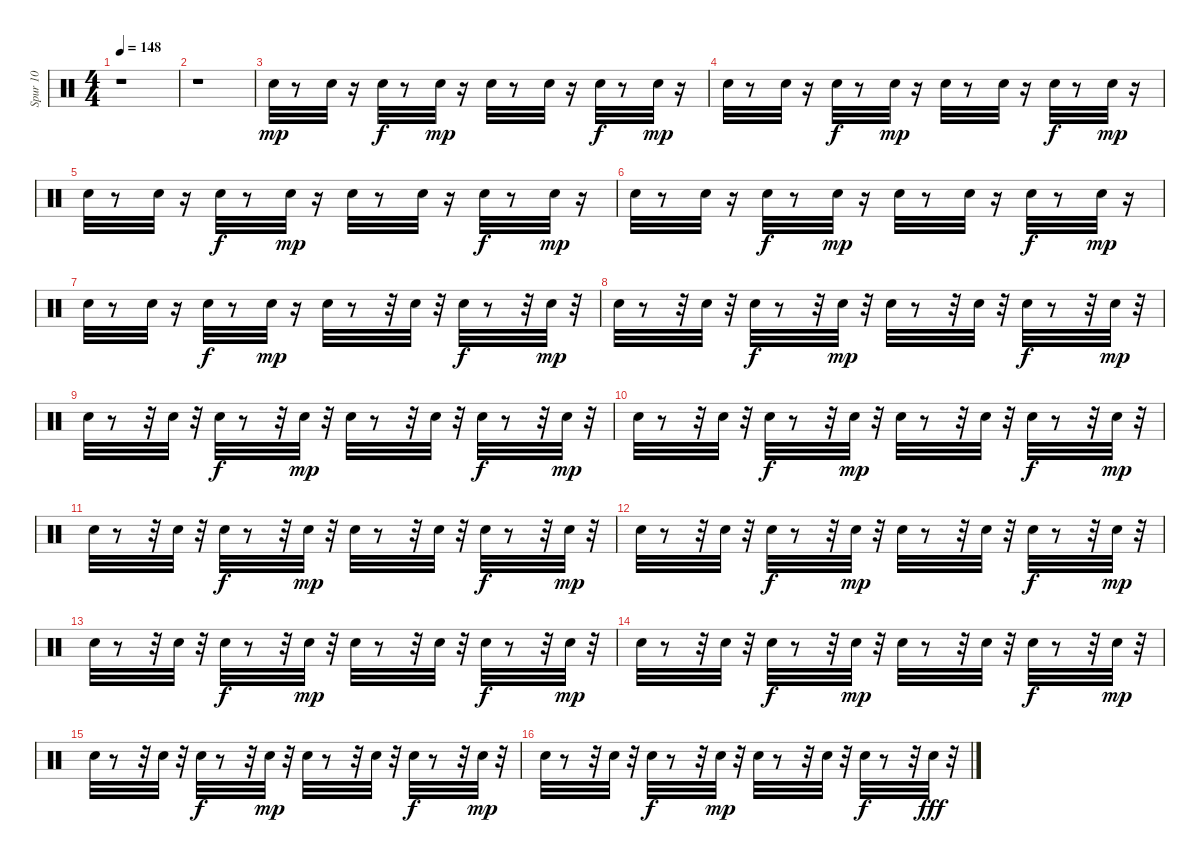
\track ("Spur 10" "Spur 10") {instrument percussion}
\staff {score}
\articulation defaults
\ts (4 4)
\tempo 148
\clef neutral
\ks c
r.1{dy mp} |
r.1 |
"Snare (hit) 2".32 r.8 "Snare (hit) 2".32 r.16 "Snare (hit) 2".32{dy f} r.8 "Snare (hit) 2".32{dy mp} r.16 "Snare (hit) 2".32 r.8 "Snare (hit) 2".32 r.16 "Snare (hit) 2".32{dy f} r.8 "Snare (hit) 2".32{dy mp} r.16 |
"Snare (hit) 2".32 r.8 "Snare (hit) 2".32 r.16 "Snare (hit) 2".32{dy f} r.8 "Snare (hit) 2".32{dy mp} r.16 "Snare (hit) 2".32 r.8 "Snare (hit) 2".32 r.16 "Snare (hit) 2".32{dy f} r.8 "Snare (hit) 2".32{dy mp} r.16 |
"Snare (hit) 2".32 r.8 "Snare (hit) 2".32 r.16 "Snare (hit) 2".32{dy f} r.8 "Snare (hit) 2".32{dy mp} r.16 "Snare (hit) 2".32 r.8 "Snare (hit) 2".32 r.16 "Snare (hit) 2".32{dy f} r.8 "Snare (hit) 2".32{dy mp} r.16 |
"Snare (hit) 2".32 r.8 "Snare (hit) 2".32 r.16 "Snare (hit) 2".32{dy f} r.8 "Snare (hit) 2".32{dy mp} r.16 "Snare (hit) 2".32 r.8 "Snare (hit) 2".32 r.16 "Snare (hit) 2".32{dy f} r.8 "Snare (hit) 2".32{dy mp} r.16 |
"Snare (hit) 2".32 r.8 "Snare (hit) 2".32 r.16 "Snare (hit) 2".32{dy f} r.8 "Snare (hit) 2".32{dy mp} r.16 "Snare (hit) 2".32 r.8 r.32 "Snare (hit) 2".32 r.32 "Snare (hit) 2".32{dy f} r.8 r.32 "Snare (hit) 2".32{dy mp} r.32 |
"Snare (hit) 2".32 r.8 r.32 "Snare (hit) 2".32 r.32 "Snare (hit) 2".32{dy f} r.8 r.32 "Snare (hit) 2".32{dy mp} r.32 "Snare (hit) 2".32 r.8 r.32 "Snare (hit) 2".32 r.32 "Snare (hit) 2".32{dy f} r.8 r.32 "Snare (hit) 2".32{dy mp} r.32 |
"Snare (hit) 2".32 r.8 r.32 "Snare (hit) 2".32 r.32 "Snare (hit) 2".32{dy f} r.8 r.32 "Snare (hit) 2".32{dy mp} r.32 "Snare (hit) 2".32 r.8 r.32 "Snare (hit) 2".32 r.32 "Snare (hit) 2".32{dy f} r.8 r.32 "Snare (hit) 2".32{dy mp} r.32 |
"Snare (hit) 2".32 r.8 r.32 "Snare (hit) 2".32 r.32 "Snare (hit) 2".32{dy f} r.8 r.32 "Snare (hit) 2".32{dy mp} r.32 "Snare (hit) 2".32 r.8 r.32 "Snare (hit) 2".32 r.32 "Snare (hit) 2".32{dy f} r.8 r.32 "Snare (hit) 2".32{dy mp} r.32 |
"Snare (hit) 2".32 r.8 r.32 "Snare (hit) 2".32 r.32 "Snare (hit) 2".32{dy f} r.8 r.32 "Snare (hit) 2".32{dy mp} r.32 "Snare (hit) 2".32 r.8 r.32 "Snare (hit) 2".32 r.32 "Snare (hit) 2".32{dy f} r.8 r.32 "Snare (hit) 2".32{dy mp} r.32 |
"Snare (hit) 2".32 r.8 r.32 "Snare (hit) 2".32 r.32 "Snare (hit) 2".32{dy f} r.8 r.32 "Snare (hit) 2".32{dy mp} r.32 "Snare (hit) 2".32 r.8 r.32 "Snare (hit) 2".32 r.32 "Snare (hit) 2".32{dy f} r.8 r.32 "Snare (hit) 2".32{dy mp} r.32 |
"Snare (hit) 2".32 r.8 r.32 "Snare (hit) 2".32 r.32 "Snare (hit) 2".32{dy f} r.8 r.32 "Snare (hit) 2".32{dy mp} r.32 "Snare (hit) 2".32 r.8 r.32 "Snare (hit) 2".32 r.32 "Snare (hit) 2".32{dy f} r.8 r.32 "Snare (hit) 2".32{dy mp} r.32 |
"Snare (hit) 2".32 r.8 r.32 "Snare (hit) 2".32 r.32 "Snare (hit) 2".32{dy f} r.8 r.32 "Snare (hit) 2".32{dy mp} r.32 "Snare (hit) 2".32 r.8 r.32 "Snare (hit) 2".32 r.32 "Snare (hit) 2".32{dy f} r.8 r.32 "Snare (hit) 2".32{dy mp} r.32 |
"Snare (hit) 2".32 r.8 r.32 "Snare (hit) 2".32 r.32 "Snare (hit) 2".32{dy f} r.8 r.32 "Snare (hit) 2".32{dy mp} r.32 "Snare (hit) 2".32 r.8 r.32 "Snare (hit) 2".32 r.32 "Snare (hit) 2".32{dy f} r.8 r.32 "Snare (hit) 2".32{dy mp} r.32 |
"Snare (hit) 2".32 r.8 r.32 "Snare (hit) 2".32 r.32 "Snare (hit) 2".32{dy f} r.8 r.32 "Snare (hit) 2".32{dy mp} r.32 "Snare (hit) 2".32 r.8 r.32 "Snare (hit) 2".32 r.32 "Snare (hit) 2".32{dy f} r.8 r.32 "Snare (hit) 2".32{dy fff} r.32
